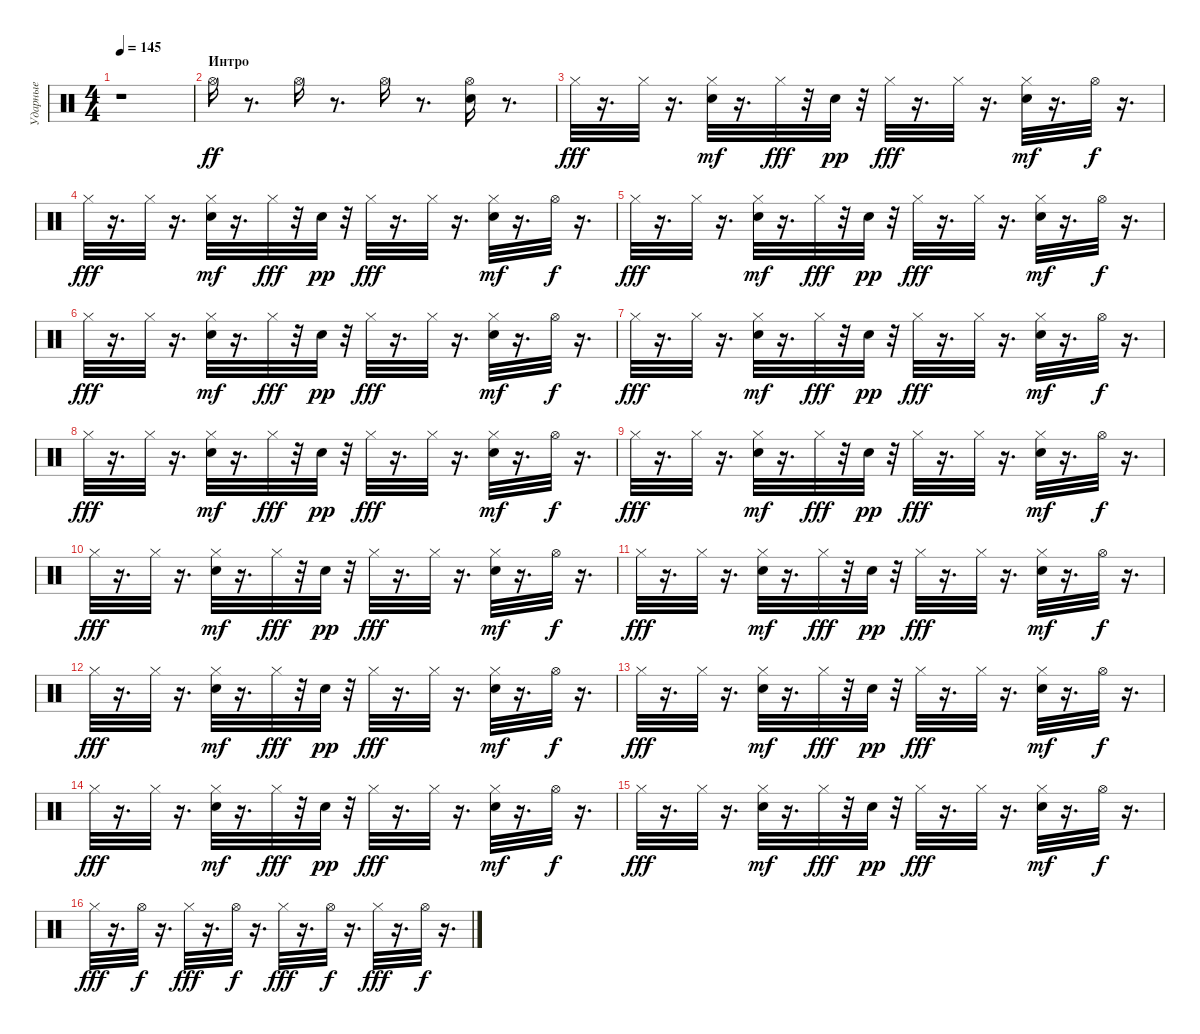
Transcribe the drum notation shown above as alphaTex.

\track ("Ударные" "Ударные") {instrument percussion}
\staff {score}
\articulation defaults
\ts (4 4)
\tempo 145
\clef neutral
\ks c
r.1{dy ff} |
\section ("" "Интро")
"Hi-Hat (open)".16 r.8{d} "Hi-Hat (open)".16 r.8{d} "Hi-Hat (open)".16 r.8{d} ("Electric Snare (hit)" "Hi-Hat (open)").16 r.8{d} |
"Hi-Hat (closed)".32{dy fff} r.16{d} "Hi-Hat (closed)".32 r.16{d} ("Hi-Hat (closed)" "Electric Snare (hit)").32{dy mf} r.16{d} "Hi-Hat (closed)".32{dy fff} r.32 "Electric Snare (hit)".32{dy pp} r.32 "Hi-Hat (closed)".32{dy fff} r.16{d} "Hi-Hat (closed)".32 r.16{d} ("Hi-Hat (closed)" "Electric Snare (hit)").32{dy mf} r.16{d} "Hi-Hat (open)".32{dy f} r.16{d} |
"Hi-Hat (closed)".32{dy fff} r.16{d} "Hi-Hat (closed)".32 r.16{d} ("Hi-Hat (closed)" "Electric Snare (hit)").32{dy mf} r.16{d} "Hi-Hat (closed)".32{dy fff} r.32 "Electric Snare (hit)".32{dy pp} r.32 "Hi-Hat (closed)".32{dy fff} r.16{d} "Hi-Hat (closed)".32 r.16{d} ("Hi-Hat (closed)" "Electric Snare (hit)").32{dy mf} r.16{d} "Hi-Hat (open)".32{dy f} r.16{d} |
"Hi-Hat (closed)".32{dy fff} r.16{d} "Hi-Hat (closed)".32 r.16{d} ("Hi-Hat (closed)" "Electric Snare (hit)").32{dy mf} r.16{d} "Hi-Hat (closed)".32{dy fff} r.32 "Electric Snare (hit)".32{dy pp} r.32 "Hi-Hat (closed)".32{dy fff} r.16{d} "Hi-Hat (closed)".32 r.16{d} ("Hi-Hat (closed)" "Electric Snare (hit)").32{dy mf} r.16{d} "Hi-Hat (open)".32{dy f} r.16{d} |
"Hi-Hat (closed)".32{dy fff} r.16{d} "Hi-Hat (closed)".32 r.16{d} ("Hi-Hat (closed)" "Electric Snare (hit)").32{dy mf} r.16{d} "Hi-Hat (closed)".32{dy fff} r.32 "Electric Snare (hit)".32{dy pp} r.32 "Hi-Hat (closed)".32{dy fff} r.16{d} "Hi-Hat (closed)".32 r.16{d} ("Hi-Hat (closed)" "Electric Snare (hit)").32{dy mf} r.16{d} "Hi-Hat (open)".32{dy f} r.16{d} |
"Hi-Hat (closed)".32{dy fff} r.16{d} "Hi-Hat (closed)".32 r.16{d} ("Hi-Hat (closed)" "Electric Snare (hit)").32{dy mf} r.16{d} "Hi-Hat (closed)".32{dy fff} r.32 "Electric Snare (hit)".32{dy pp} r.32 "Hi-Hat (closed)".32{dy fff} r.16{d} "Hi-Hat (closed)".32 r.16{d} ("Hi-Hat (closed)" "Electric Snare (hit)").32{dy mf} r.16{d} "Hi-Hat (open)".32{dy f} r.16{d} |
"Hi-Hat (closed)".32{dy fff} r.16{d} "Hi-Hat (closed)".32 r.16{d} ("Hi-Hat (closed)" "Electric Snare (hit)").32{dy mf} r.16{d} "Hi-Hat (closed)".32{dy fff} r.32 "Electric Snare (hit)".32{dy pp} r.32 "Hi-Hat (closed)".32{dy fff} r.16{d} "Hi-Hat (closed)".32 r.16{d} ("Hi-Hat (closed)" "Electric Snare (hit)").32{dy mf} r.16{d} "Hi-Hat (open)".32{dy f} r.16{d} |
"Hi-Hat (closed)".32{dy fff} r.16{d} "Hi-Hat (closed)".32 r.16{d} ("Hi-Hat (closed)" "Electric Snare (hit)").32{dy mf} r.16{d} "Hi-Hat (closed)".32{dy fff} r.32 "Electric Snare (hit)".32{dy pp} r.32 "Hi-Hat (closed)".32{dy fff} r.16{d} "Hi-Hat (closed)".32 r.16{d} ("Hi-Hat (closed)" "Electric Snare (hit)").32{dy mf} r.16{d} "Hi-Hat (open)".32{dy f} r.16{d} |
"Hi-Hat (closed)".32{dy fff} r.16{d} "Hi-Hat (closed)".32 r.16{d} ("Hi-Hat (closed)" "Electric Snare (hit)").32{dy mf} r.16{d} "Hi-Hat (closed)".32{dy fff} r.32 "Electric Snare (hit)".32{dy pp} r.32 "Hi-Hat (closed)".32{dy fff} r.16{d} "Hi-Hat (closed)".32 r.16{d} ("Hi-Hat (closed)" "Electric Snare (hit)").32{dy mf} r.16{d} "Hi-Hat (open)".32{dy f} r.16{d} |
"Hi-Hat (closed)".32{dy fff} r.16{d} "Hi-Hat (closed)".32 r.16{d} ("Hi-Hat (closed)" "Electric Snare (hit)").32{dy mf} r.16{d} "Hi-Hat (closed)".32{dy fff} r.32 "Electric Snare (hit)".32{dy pp} r.32 "Hi-Hat (closed)".32{dy fff} r.16{d} "Hi-Hat (closed)".32 r.16{d} ("Hi-Hat (closed)" "Electric Snare (hit)").32{dy mf} r.16{d} "Hi-Hat (open)".32{dy f} r.16{d} |
"Hi-Hat (closed)".32{dy fff} r.16{d} "Hi-Hat (closed)".32 r.16{d} ("Hi-Hat (closed)" "Electric Snare (hit)").32{dy mf} r.16{d} "Hi-Hat (closed)".32{dy fff} r.32 "Electric Snare (hit)".32{dy pp} r.32 "Hi-Hat (closed)".32{dy fff} r.16{d} "Hi-Hat (closed)".32 r.16{d} ("Hi-Hat (closed)" "Electric Snare (hit)").32{dy mf} r.16{d} "Hi-Hat (open)".32{dy f} r.16{d} |
"Hi-Hat (closed)".32{dy fff} r.16{d} "Hi-Hat (closed)".32 r.16{d} ("Hi-Hat (closed)" "Electric Snare (hit)").32{dy mf} r.16{d} "Hi-Hat (closed)".32{dy fff} r.32 "Electric Snare (hit)".32{dy pp} r.32 "Hi-Hat (closed)".32{dy fff} r.16{d} "Hi-Hat (closed)".32 r.16{d} ("Hi-Hat (closed)" "Electric Snare (hit)").32{dy mf} r.16{d} "Hi-Hat (open)".32{dy f} r.16{d} |
"Hi-Hat (closed)".32{dy fff} r.16{d} "Hi-Hat (closed)".32 r.16{d} ("Hi-Hat (closed)" "Electric Snare (hit)").32{dy mf} r.16{d} "Hi-Hat (closed)".32{dy fff} r.32 "Electric Snare (hit)".32{dy pp} r.32 "Hi-Hat (closed)".32{dy fff} r.16{d} "Hi-Hat (closed)".32 r.16{d} ("Hi-Hat (closed)" "Electric Snare (hit)").32{dy mf} r.16{d} "Hi-Hat (open)".32{dy f} r.16{d} |
"Hi-Hat (closed)".32{dy fff} r.16{d} "Hi-Hat (closed)".32 r.16{d} ("Hi-Hat (closed)" "Electric Snare (hit)").32{dy mf} r.16{d} "Hi-Hat (closed)".32{dy fff} r.32 "Electric Snare (hit)".32{dy pp} r.32 "Hi-Hat (closed)".32{dy fff} r.16{d} "Hi-Hat (closed)".32 r.16{d} ("Hi-Hat (closed)" "Electric Snare (hit)").32{dy mf} r.16{d} "Hi-Hat (open)".32{dy f} r.16{d} |
"Hi-Hat (closed)".32{dy fff} r.16{d} "Hi-Hat (open)".32{dy f} r.16{d} "Hi-Hat (closed)".32{dy fff} r.16{d} "Hi-Hat (open)".32{dy f} r.16{d} "Hi-Hat (closed)".32{dy fff} r.16{d} "Hi-Hat (open)".32{dy f} r.16{d} "Hi-Hat (closed)".32{dy fff} r.16{d} "Hi-Hat (open)".32{dy f} r.16{d}
